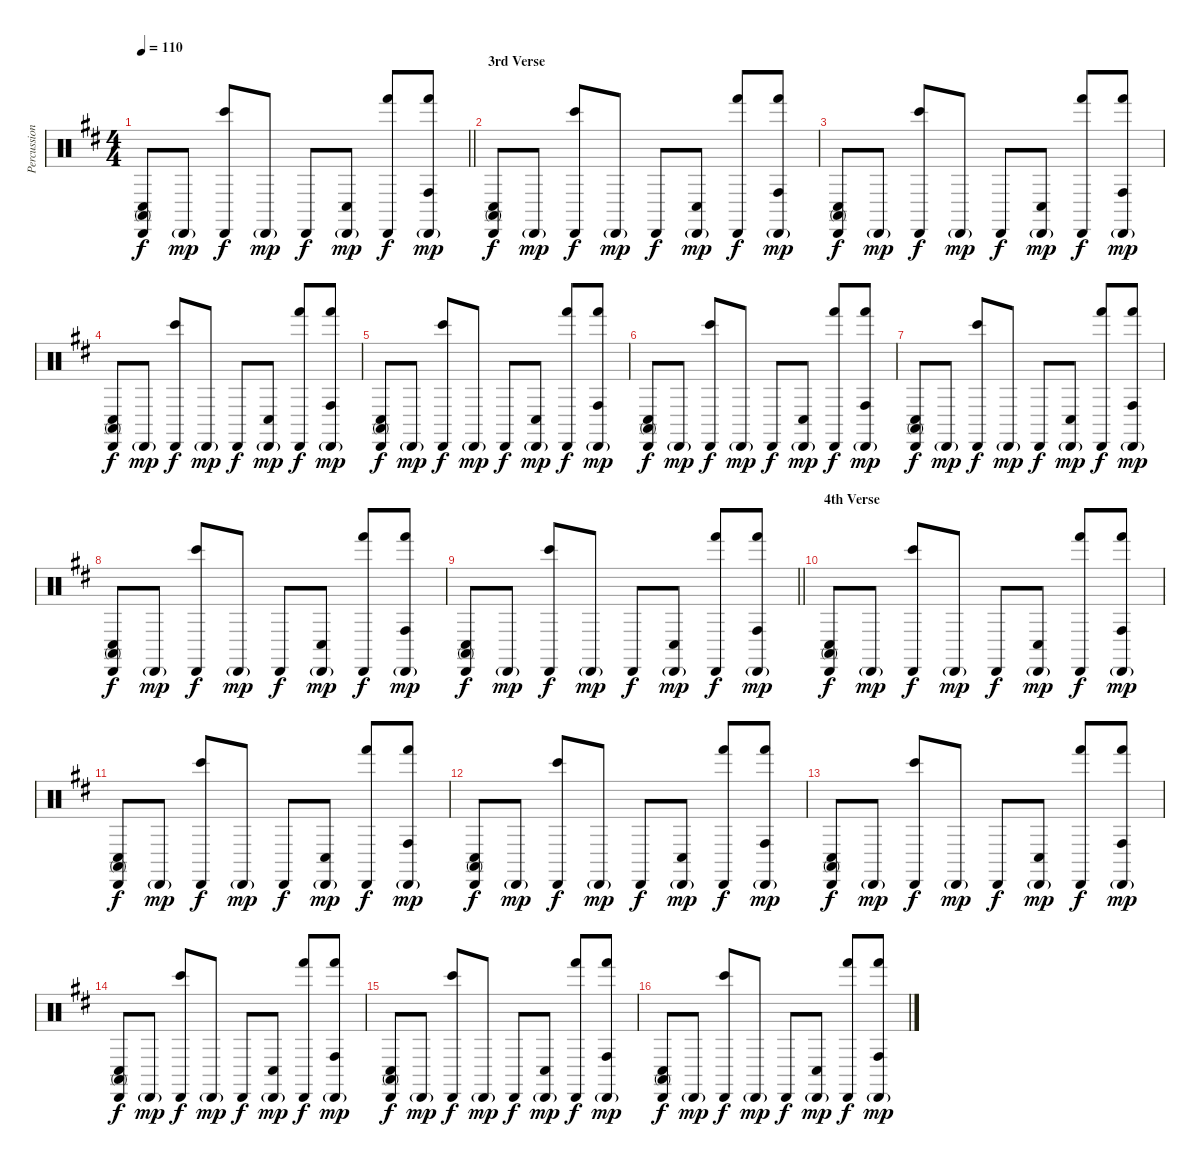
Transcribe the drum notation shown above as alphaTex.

\track ("Percussions" "Percussion") {instrument percussion}
\staff {score}
\articulation defaults
\ts (4 4)
\tempo 110
\clef neutral
\barLineRight lightlight
\ks d
("Cabasa (hit)" "Conga high (mute)" "Conga low (hit)").8{dy f} "Cabasa (hit)"{g}.8{dy mp} ("Cabasa (hit)" "Bongo High (hit)").8{dy f} "Cabasa (hit)"{g}.8{dy mp} "Cabasa (hit)".8{dy f} ("Cabasa (hit)"{g} "Conga low (hit)").8{dy mp} ("Cabasa (hit)" "Hand (hit)").8{dy f} ("Cabasa (hit)"{g} "Hand (hit)" "Conga high (hit)").8{dy mp} |
\section ("" "3rd Verse")
("Cabasa (hit)" "Conga high (mute)" "Conga low (hit)").8{dy f} "Cabasa (hit)"{g}.8{dy mp} ("Cabasa (hit)" "Bongo High (hit)").8{dy f} "Cabasa (hit)"{g}.8{dy mp} "Cabasa (hit)".8{dy f} ("Cabasa (hit)"{g} "Conga low (hit)").8{dy mp} ("Cabasa (hit)" "Hand (hit)").8{dy f} ("Cabasa (hit)"{g} "Hand (hit)" "Conga high (hit)").8{dy mp} |
("Cabasa (hit)" "Conga high (mute)" "Conga low (hit)").8{dy f} "Cabasa (hit)"{g}.8{dy mp} ("Cabasa (hit)" "Bongo High (hit)").8{dy f} "Cabasa (hit)"{g}.8{dy mp} "Cabasa (hit)".8{dy f} ("Cabasa (hit)"{g} "Conga low (hit)").8{dy mp} ("Cabasa (hit)" "Hand (hit)").8{dy f} ("Cabasa (hit)"{g} "Hand (hit)" "Conga high (hit)").8{dy mp} |
("Cabasa (hit)" "Conga high (mute)" "Conga low (hit)").8{dy f} "Cabasa (hit)"{g}.8{dy mp} ("Cabasa (hit)" "Bongo High (hit)").8{dy f} "Cabasa (hit)"{g}.8{dy mp} "Cabasa (hit)".8{dy f} ("Cabasa (hit)"{g} "Conga low (hit)").8{dy mp} ("Cabasa (hit)" "Hand (hit)").8{dy f} ("Cabasa (hit)"{g} "Hand (hit)" "Conga high (hit)").8{dy mp} |
("Cabasa (hit)" "Conga high (mute)" "Conga low (hit)").8{dy f} "Cabasa (hit)"{g}.8{dy mp} ("Cabasa (hit)" "Bongo High (hit)").8{dy f} "Cabasa (hit)"{g}.8{dy mp} "Cabasa (hit)".8{dy f} ("Cabasa (hit)"{g} "Conga low (hit)").8{dy mp} ("Cabasa (hit)" "Hand (hit)").8{dy f} ("Cabasa (hit)"{g} "Hand (hit)" "Conga high (hit)").8{dy mp} |
("Cabasa (hit)" "Conga high (mute)" "Conga low (hit)").8{dy f} "Cabasa (hit)"{g}.8{dy mp} ("Cabasa (hit)" "Bongo High (hit)").8{dy f} "Cabasa (hit)"{g}.8{dy mp} "Cabasa (hit)".8{dy f} ("Cabasa (hit)"{g} "Conga low (hit)").8{dy mp} ("Cabasa (hit)" "Hand (hit)").8{dy f} ("Cabasa (hit)"{g} "Hand (hit)" "Conga high (hit)").8{dy mp} |
("Cabasa (hit)" "Conga high (mute)" "Conga low (hit)").8{dy f} "Cabasa (hit)"{g}.8{dy mp} ("Cabasa (hit)" "Bongo High (hit)").8{dy f} "Cabasa (hit)"{g}.8{dy mp} "Cabasa (hit)".8{dy f} ("Cabasa (hit)"{g} "Conga low (hit)").8{dy mp} ("Cabasa (hit)" "Hand (hit)").8{dy f} ("Cabasa (hit)"{g} "Hand (hit)" "Conga high (hit)").8{dy mp} |
("Cabasa (hit)" "Conga high (mute)" "Conga low (hit)").8{dy f} "Cabasa (hit)"{g}.8{dy mp} ("Cabasa (hit)" "Bongo High (hit)").8{dy f} "Cabasa (hit)"{g}.8{dy mp} "Cabasa (hit)".8{dy f} ("Cabasa (hit)"{g} "Conga low (hit)").8{dy mp} ("Cabasa (hit)" "Hand (hit)").8{dy f} ("Cabasa (hit)"{g} "Hand (hit)" "Conga high (hit)").8{dy mp} |
\barLineRight lightlight
("Cabasa (hit)" "Conga high (mute)" "Conga low (hit)").8{dy f} "Cabasa (hit)"{g}.8{dy mp} ("Cabasa (hit)" "Bongo High (hit)").8{dy f} "Cabasa (hit)"{g}.8{dy mp} "Cabasa (hit)".8{dy f} ("Cabasa (hit)"{g} "Conga low (hit)").8{dy mp} ("Cabasa (hit)" "Hand (hit)").8{dy f} ("Cabasa (hit)"{g} "Hand (hit)" "Conga high (hit)").8{dy mp} |
\section ("" "4th Verse")
("Cabasa (hit)" "Conga high (mute)" "Conga low (hit)").8{dy f} "Cabasa (hit)"{g}.8{dy mp} ("Cabasa (hit)" "Bongo High (hit)").8{dy f} "Cabasa (hit)"{g}.8{dy mp} "Cabasa (hit)".8{dy f} ("Cabasa (hit)"{g} "Conga low (hit)").8{dy mp} ("Cabasa (hit)" "Hand (hit)").8{dy f} ("Cabasa (hit)"{g} "Hand (hit)" "Conga high (hit)").8{dy mp} |
("Cabasa (hit)" "Conga high (mute)" "Conga low (hit)").8{dy f} "Cabasa (hit)"{g}.8{dy mp} ("Cabasa (hit)" "Bongo High (hit)").8{dy f} "Cabasa (hit)"{g}.8{dy mp} "Cabasa (hit)".8{dy f} ("Cabasa (hit)"{g} "Conga low (hit)").8{dy mp} ("Cabasa (hit)" "Hand (hit)").8{dy f} ("Cabasa (hit)"{g} "Hand (hit)" "Conga high (hit)").8{dy mp} |
("Cabasa (hit)" "Conga high (mute)" "Conga low (hit)").8{dy f} "Cabasa (hit)"{g}.8{dy mp} ("Cabasa (hit)" "Bongo High (hit)").8{dy f} "Cabasa (hit)"{g}.8{dy mp} "Cabasa (hit)".8{dy f} ("Cabasa (hit)"{g} "Conga low (hit)").8{dy mp} ("Cabasa (hit)" "Hand (hit)").8{dy f} ("Cabasa (hit)"{g} "Hand (hit)" "Conga high (hit)").8{dy mp} |
("Cabasa (hit)" "Conga high (mute)" "Conga low (hit)").8{dy f} "Cabasa (hit)"{g}.8{dy mp} ("Cabasa (hit)" "Bongo High (hit)").8{dy f} "Cabasa (hit)"{g}.8{dy mp} "Cabasa (hit)".8{dy f} ("Cabasa (hit)"{g} "Conga low (hit)").8{dy mp} ("Cabasa (hit)" "Hand (hit)").8{dy f} ("Cabasa (hit)"{g} "Hand (hit)" "Conga high (hit)").8{dy mp} |
("Cabasa (hit)" "Conga high (mute)" "Conga low (hit)").8{dy f} "Cabasa (hit)"{g}.8{dy mp} ("Cabasa (hit)" "Bongo High (hit)").8{dy f} "Cabasa (hit)"{g}.8{dy mp} "Cabasa (hit)".8{dy f} ("Cabasa (hit)"{g} "Conga low (hit)").8{dy mp} ("Cabasa (hit)" "Hand (hit)").8{dy f} ("Cabasa (hit)"{g} "Hand (hit)" "Conga high (hit)").8{dy mp} |
("Cabasa (hit)" "Conga high (mute)" "Conga low (hit)").8{dy f} "Cabasa (hit)"{g}.8{dy mp} ("Cabasa (hit)" "Bongo High (hit)").8{dy f} "Cabasa (hit)"{g}.8{dy mp} "Cabasa (hit)".8{dy f} ("Cabasa (hit)"{g} "Conga low (hit)").8{dy mp} ("Cabasa (hit)" "Hand (hit)").8{dy f} ("Cabasa (hit)"{g} "Hand (hit)" "Conga high (hit)").8{dy mp} |
("Cabasa (hit)" "Conga high (mute)" "Conga low (hit)").8{dy f} "Cabasa (hit)"{g}.8{dy mp} ("Cabasa (hit)" "Bongo High (hit)").8{dy f} "Cabasa (hit)"{g}.8{dy mp} "Cabasa (hit)".8{dy f} ("Cabasa (hit)"{g} "Conga low (hit)").8{dy mp} ("Cabasa (hit)" "Hand (hit)").8{dy f} ("Cabasa (hit)"{g} "Hand (hit)" "Conga high (hit)").8{dy mp}
